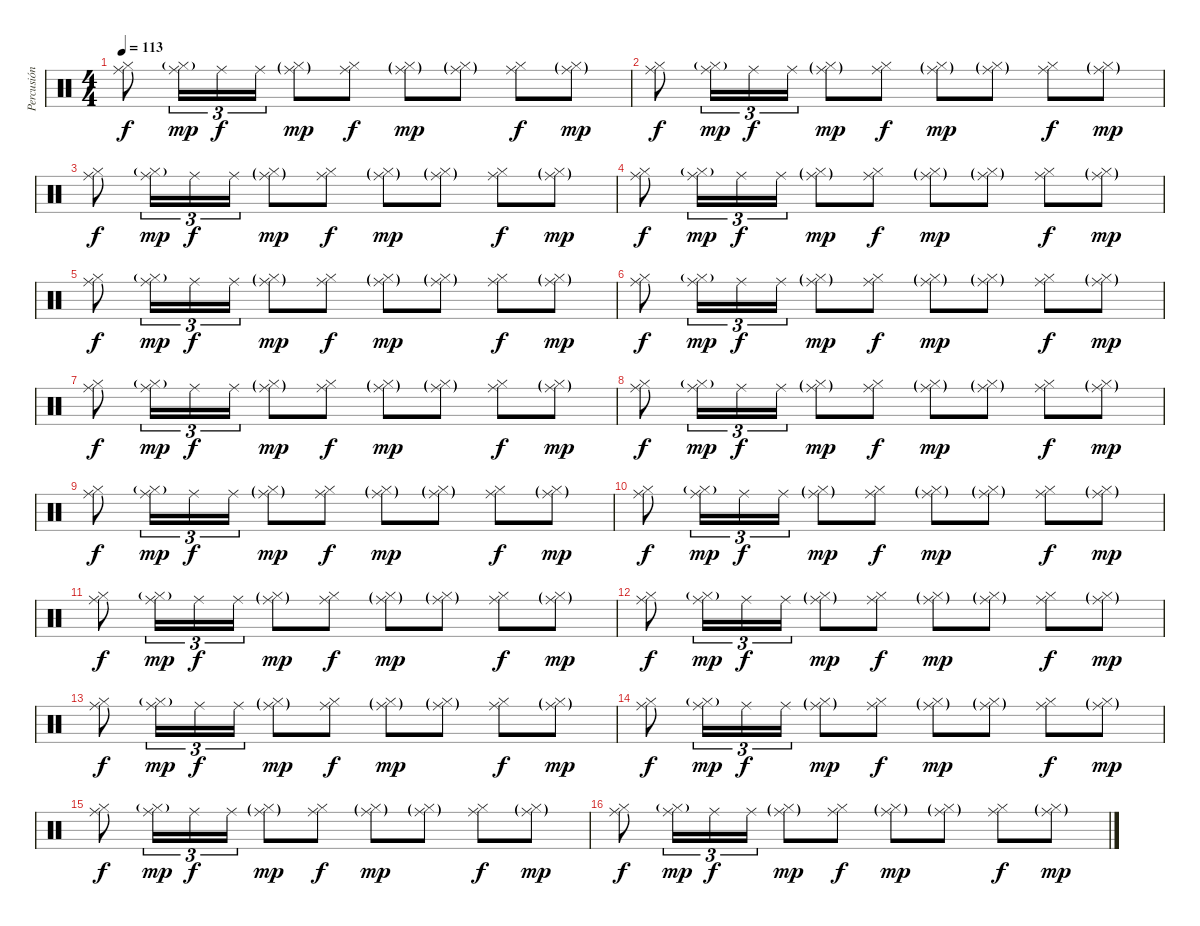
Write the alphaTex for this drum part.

\track ("Percusión" "Percusión") {instrument percussion}
\staff {score}
\articulation defaults
\ts (4 4)
\tempo 113
\clef neutral
\ks c
("Hi-Hat (closed)" "Ride (middle)").8{dy f} ("Hi-Hat (closed)"{g} "Ride (middle)").16{tu (3 2) dy mp} "Ride (middle)".16{tu (3 2) dy f} "Ride (middle)".16{tu (3 2)} ("Hi-Hat (closed)"{g} "Ride (middle)"{g}).8{dy mp} ("Hi-Hat (closed)" "Ride (middle)").8{dy f} ("Hi-Hat (closed)"{g} "Ride (middle)"{g}).8{dy mp} ("Hi-Hat (closed)"{g} "Ride (middle)"{g}).8 ("Hi-Hat (closed)" "Ride (middle)").8{dy f} ("Hi-Hat (closed)"{g} "Ride (middle)"{g}).8{dy mp} |
("Hi-Hat (closed)" "Ride (middle)").8{dy f} ("Hi-Hat (closed)"{g} "Ride (middle)").16{tu (3 2) dy mp} "Ride (middle)".16{tu (3 2) dy f} "Ride (middle)".16{tu (3 2)} ("Hi-Hat (closed)"{g} "Ride (middle)"{g}).8{dy mp} ("Hi-Hat (closed)" "Ride (middle)").8{dy f} ("Hi-Hat (closed)"{g} "Ride (middle)"{g}).8{dy mp} ("Hi-Hat (closed)"{g} "Ride (middle)"{g}).8 ("Hi-Hat (closed)" "Ride (middle)").8{dy f} ("Hi-Hat (closed)"{g} "Ride (middle)"{g}).8{dy mp} |
("Hi-Hat (closed)" "Ride (middle)").8{dy f} ("Hi-Hat (closed)"{g} "Ride (middle)").16{tu (3 2) dy mp} "Ride (middle)".16{tu (3 2) dy f} "Ride (middle)".16{tu (3 2)} ("Hi-Hat (closed)"{g} "Ride (middle)"{g}).8{dy mp} ("Hi-Hat (closed)" "Ride (middle)").8{dy f} ("Hi-Hat (closed)"{g} "Ride (middle)"{g}).8{dy mp} ("Hi-Hat (closed)"{g} "Ride (middle)"{g}).8 ("Hi-Hat (closed)" "Ride (middle)").8{dy f} ("Hi-Hat (closed)"{g} "Ride (middle)"{g}).8{dy mp} |
("Hi-Hat (closed)" "Ride (middle)").8{dy f} ("Hi-Hat (closed)"{g} "Ride (middle)").16{tu (3 2) dy mp} "Ride (middle)".16{tu (3 2) dy f} "Ride (middle)".16{tu (3 2)} ("Hi-Hat (closed)"{g} "Ride (middle)"{g}).8{dy mp} ("Hi-Hat (closed)" "Ride (middle)").8{dy f} ("Hi-Hat (closed)"{g} "Ride (middle)"{g}).8{dy mp} ("Hi-Hat (closed)"{g} "Ride (middle)"{g}).8 ("Hi-Hat (closed)" "Ride (middle)").8{dy f} ("Hi-Hat (closed)"{g} "Ride (middle)"{g}).8{dy mp} |
("Hi-Hat (closed)" "Ride (middle)").8{dy f} ("Hi-Hat (closed)"{g} "Ride (middle)").16{tu (3 2) dy mp} "Ride (middle)".16{tu (3 2) dy f} "Ride (middle)".16{tu (3 2)} ("Hi-Hat (closed)"{g} "Ride (middle)"{g}).8{dy mp} ("Hi-Hat (closed)" "Ride (middle)").8{dy f} ("Hi-Hat (closed)"{g} "Ride (middle)"{g}).8{dy mp} ("Hi-Hat (closed)"{g} "Ride (middle)"{g}).8 ("Hi-Hat (closed)" "Ride (middle)").8{dy f} ("Hi-Hat (closed)"{g} "Ride (middle)"{g}).8{dy mp} |
("Hi-Hat (closed)" "Ride (middle)").8{dy f} ("Hi-Hat (closed)"{g} "Ride (middle)").16{tu (3 2) dy mp} "Ride (middle)".16{tu (3 2) dy f} "Ride (middle)".16{tu (3 2)} ("Hi-Hat (closed)"{g} "Ride (middle)"{g}).8{dy mp} ("Hi-Hat (closed)" "Ride (middle)").8{dy f} ("Hi-Hat (closed)"{g} "Ride (middle)"{g}).8{dy mp} ("Hi-Hat (closed)"{g} "Ride (middle)"{g}).8 ("Hi-Hat (closed)" "Ride (middle)").8{dy f} ("Hi-Hat (closed)"{g} "Ride (middle)"{g}).8{dy mp} |
("Hi-Hat (closed)" "Ride (middle)").8{dy f} ("Hi-Hat (closed)"{g} "Ride (middle)").16{tu (3 2) dy mp} "Ride (middle)".16{tu (3 2) dy f} "Ride (middle)".16{tu (3 2)} ("Hi-Hat (closed)"{g} "Ride (middle)"{g}).8{dy mp} ("Hi-Hat (closed)" "Ride (middle)").8{dy f} ("Hi-Hat (closed)"{g} "Ride (middle)"{g}).8{dy mp} ("Hi-Hat (closed)"{g} "Ride (middle)"{g}).8 ("Hi-Hat (closed)" "Ride (middle)").8{dy f} ("Hi-Hat (closed)"{g} "Ride (middle)"{g}).8{dy mp} |
("Hi-Hat (closed)" "Ride (middle)").8{dy f} ("Hi-Hat (closed)"{g} "Ride (middle)").16{tu (3 2) dy mp} "Ride (middle)".16{tu (3 2) dy f} "Ride (middle)".16{tu (3 2)} ("Hi-Hat (closed)"{g} "Ride (middle)"{g}).8{dy mp} ("Hi-Hat (closed)" "Ride (middle)").8{dy f} ("Hi-Hat (closed)"{g} "Ride (middle)"{g}).8{dy mp} ("Hi-Hat (closed)"{g} "Ride (middle)"{g}).8 ("Hi-Hat (closed)" "Ride (middle)").8{dy f} ("Hi-Hat (closed)"{g} "Ride (middle)"{g}).8{dy mp} |
("Hi-Hat (closed)" "Ride (middle)").8{dy f} ("Hi-Hat (closed)"{g} "Ride (middle)").16{tu (3 2) dy mp} "Ride (middle)".16{tu (3 2) dy f} "Ride (middle)".16{tu (3 2)} ("Hi-Hat (closed)"{g} "Ride (middle)"{g}).8{dy mp} ("Hi-Hat (closed)" "Ride (middle)").8{dy f} ("Hi-Hat (closed)"{g} "Ride (middle)"{g}).8{dy mp} ("Hi-Hat (closed)"{g} "Ride (middle)"{g}).8 ("Hi-Hat (closed)" "Ride (middle)").8{dy f} ("Hi-Hat (closed)"{g} "Ride (middle)"{g}).8{dy mp} |
("Hi-Hat (closed)" "Ride (middle)").8{dy f} ("Hi-Hat (closed)"{g} "Ride (middle)").16{tu (3 2) dy mp} "Ride (middle)".16{tu (3 2) dy f} "Ride (middle)".16{tu (3 2)} ("Hi-Hat (closed)"{g} "Ride (middle)"{g}).8{dy mp} ("Hi-Hat (closed)" "Ride (middle)").8{dy f} ("Hi-Hat (closed)"{g} "Ride (middle)"{g}).8{dy mp} ("Hi-Hat (closed)"{g} "Ride (middle)"{g}).8 ("Hi-Hat (closed)" "Ride (middle)").8{dy f} ("Hi-Hat (closed)"{g} "Ride (middle)"{g}).8{dy mp} |
("Hi-Hat (closed)" "Ride (middle)").8{dy f} ("Hi-Hat (closed)"{g} "Ride (middle)").16{tu (3 2) dy mp} "Ride (middle)".16{tu (3 2) dy f} "Ride (middle)".16{tu (3 2)} ("Hi-Hat (closed)"{g} "Ride (middle)"{g}).8{dy mp} ("Hi-Hat (closed)" "Ride (middle)").8{dy f} ("Hi-Hat (closed)"{g} "Ride (middle)"{g}).8{dy mp} ("Hi-Hat (closed)"{g} "Ride (middle)"{g}).8 ("Hi-Hat (closed)" "Ride (middle)").8{dy f} ("Hi-Hat (closed)"{g} "Ride (middle)"{g}).8{dy mp} |
("Hi-Hat (closed)" "Ride (middle)").8{dy f} ("Hi-Hat (closed)"{g} "Ride (middle)").16{tu (3 2) dy mp} "Ride (middle)".16{tu (3 2) dy f} "Ride (middle)".16{tu (3 2)} ("Hi-Hat (closed)"{g} "Ride (middle)"{g}).8{dy mp} ("Hi-Hat (closed)" "Ride (middle)").8{dy f} ("Hi-Hat (closed)"{g} "Ride (middle)"{g}).8{dy mp} ("Hi-Hat (closed)"{g} "Ride (middle)"{g}).8 ("Hi-Hat (closed)" "Ride (middle)").8{dy f} ("Hi-Hat (closed)"{g} "Ride (middle)"{g}).8{dy mp} |
("Hi-Hat (closed)" "Ride (middle)").8{dy f} ("Hi-Hat (closed)"{g} "Ride (middle)").16{tu (3 2) dy mp} "Ride (middle)".16{tu (3 2) dy f} "Ride (middle)".16{tu (3 2)} ("Hi-Hat (closed)"{g} "Ride (middle)"{g}).8{dy mp} ("Hi-Hat (closed)" "Ride (middle)").8{dy f} ("Hi-Hat (closed)"{g} "Ride (middle)"{g}).8{dy mp} ("Hi-Hat (closed)"{g} "Ride (middle)"{g}).8 ("Hi-Hat (closed)" "Ride (middle)").8{dy f} ("Hi-Hat (closed)"{g} "Ride (middle)"{g}).8{dy mp} |
("Hi-Hat (closed)" "Ride (middle)").8{dy f} ("Hi-Hat (closed)"{g} "Ride (middle)").16{tu (3 2) dy mp} "Ride (middle)".16{tu (3 2) dy f} "Ride (middle)".16{tu (3 2)} ("Hi-Hat (closed)"{g} "Ride (middle)"{g}).8{dy mp} ("Hi-Hat (closed)" "Ride (middle)").8{dy f} ("Hi-Hat (closed)"{g} "Ride (middle)"{g}).8{dy mp} ("Hi-Hat (closed)"{g} "Ride (middle)"{g}).8 ("Hi-Hat (closed)" "Ride (middle)").8{dy f} ("Hi-Hat (closed)"{g} "Ride (middle)"{g}).8{dy mp} |
("Hi-Hat (closed)" "Ride (middle)").8{dy f} ("Hi-Hat (closed)"{g} "Ride (middle)").16{tu (3 2) dy mp} "Ride (middle)".16{tu (3 2) dy f} "Ride (middle)".16{tu (3 2)} ("Hi-Hat (closed)"{g} "Ride (middle)"{g}).8{dy mp} ("Hi-Hat (closed)" "Ride (middle)").8{dy f} ("Hi-Hat (closed)"{g} "Ride (middle)"{g}).8{dy mp} ("Hi-Hat (closed)"{g} "Ride (middle)"{g}).8 ("Hi-Hat (closed)" "Ride (middle)").8{dy f} ("Hi-Hat (closed)"{g} "Ride (middle)"{g}).8{dy mp} |
("Hi-Hat (closed)" "Ride (middle)").8{dy f} ("Hi-Hat (closed)"{g} "Ride (middle)").16{tu (3 2) dy mp} "Ride (middle)".16{tu (3 2) dy f} "Ride (middle)".16{tu (3 2)} ("Hi-Hat (closed)"{g} "Ride (middle)"{g}).8{dy mp} ("Hi-Hat (closed)" "Ride (middle)").8{dy f} ("Hi-Hat (closed)"{g} "Ride (middle)"{g}).8{dy mp} ("Hi-Hat (closed)"{g} "Ride (middle)"{g}).8 ("Hi-Hat (closed)" "Ride (middle)").8{dy f} ("Hi-Hat (closed)"{g} "Ride (middle)"{g}).8{dy mp}
